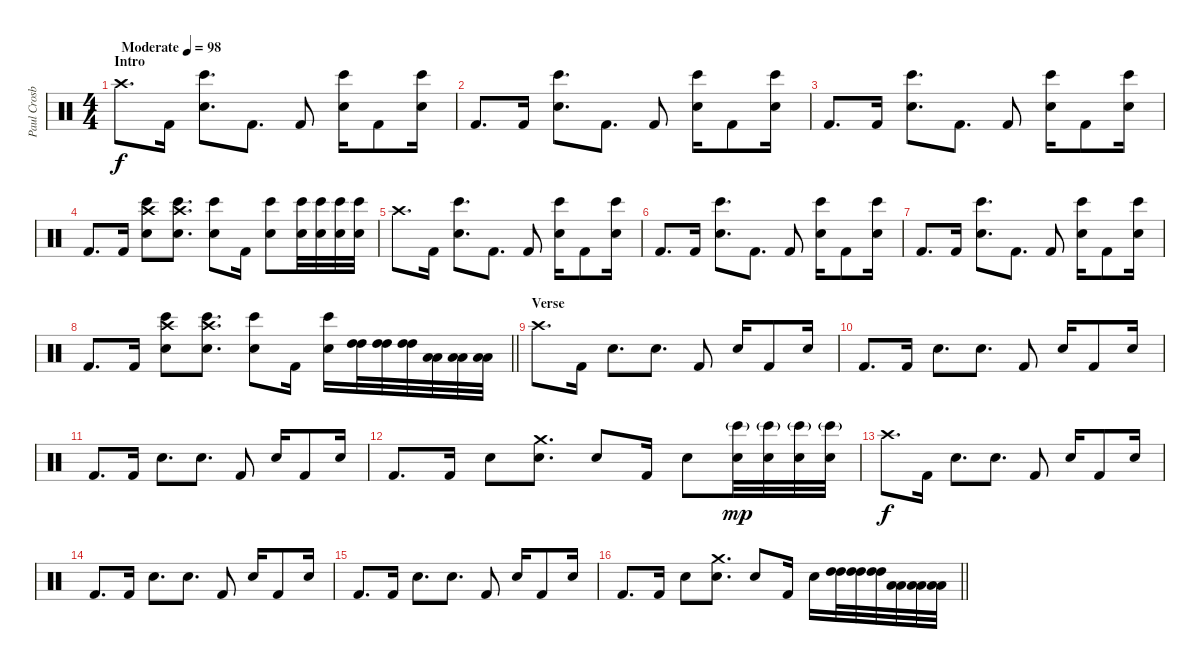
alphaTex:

\track ("Paul Crosby (Drums)" "Paul Crosb") {instrument percussion}
\staff {score}
\articulation defaults
\ts (4 4)
\section ("" "Intro")
\tempo (98 "Moderate")
\clef neutral
\ks c "Crash high (hit)".8{d dy f} "Kick (hit) 2".16
("Electric Snare (hit)" "Bongo High (hit)").8{d} "Kick (hit) 2".8{d} "Kick (hit) 2".8 ("Electric Snare (hit)" "Bongo High (hit)").16 "Kick (hit) 2".8 ("Electric Snare (hit)" "Bongo High (hit)").16 |
"Kick (hit) 2".8{d} "Kick (hit) 2".16 ("Electric Snare (hit)" "Bongo High (hit)").8{d} "Kick (hit) 2".8{d} "Kick (hit) 2".8 ("Electric Snare (hit)" "Bongo High (hit)").16 "Kick (hit) 2".8 ("Electric Snare (hit)" "Bongo High (hit)").16 |
"Kick (hit) 2".8{d} "Kick (hit) 2".16 ("Electric Snare (hit)" "Bongo High (hit)").8{d} "Kick (hit) 2".8{d} "Kick (hit) 2".8 ("Electric Snare (hit)" "Bongo High (hit)").16 "Kick (hit) 2".8 ("Electric Snare (hit)" "Bongo High (hit)").16 |
"Kick (hit) 2".8{d} "Kick (hit) 2".16 ("Crash high (hit)" "Electric Snare (hit)" "Bongo High (hit)").8 ("Crash high (hit)" "Electric Snare (hit)" "Bongo High (hit)").8{d} ("Electric Snare (hit)" "Bongo High (hit)").8 "Kick (hit) 2".16 ("Electric Snare (hit)" "Bongo High (hit)").8 ("Electric Snare (hit)" "Bongo High (hit)").32 ("Electric Snare (hit)" "Bongo High (hit)").32 ("Electric Snare (hit)" "Bongo High (hit)").32 ("Electric Snare (hit)" "Bongo High (hit)").32 |
"Crash high (hit)".8{d} "Kick (hit) 2".16 ("Electric Snare (hit)" "Bongo High (hit)").8{d} "Kick (hit) 2".8{d} "Kick (hit) 2".8 ("Electric Snare (hit)" "Bongo High (hit)").16 "Kick (hit) 2".8 ("Electric Snare (hit)" "Bongo High (hit)").16 |
"Kick (hit) 2".8{d} "Kick (hit) 2".16 ("Electric Snare (hit)" "Bongo High (hit)").8{d} "Kick (hit) 2".8{d} "Kick (hit) 2".8 ("Electric Snare (hit)" "Bongo High (hit)").16 "Kick (hit) 2".8 ("Electric Snare (hit)" "Bongo High (hit)").16 |
"Kick (hit) 2".8{d} "Kick (hit) 2".16 ("Electric Snare (hit)" "Bongo High (hit)").8{d} "Kick (hit) 2".8{d} "Kick (hit) 2".8 ("Electric Snare (hit)" "Bongo High (hit)").16 "Kick (hit) 2".8 ("Electric Snare (hit)" "Bongo High (hit)").16 |
\barLineRight lightlight "Kick (hit) 2".8{d} "Kick (hit) 2".16
("Crash high (hit)" "Electric Snare (hit)" "Bongo High (hit)").8 ("Crash high (hit)" "Electric Snare (hit)" "Bongo High (hit)").8{d} ("Electric Snare (hit)" "Bongo High (hit)").8 "Kick (hit) 2".16 ("Electric Snare (hit)" "Bongo High (hit)").16 ("High Tom (hit)" "High Tom (hit)").32 ("High Tom (hit)" "High Tom (hit)").32 ("High Tom (hit)" "High Tom (hit)").32 ("Low Tom (hit)" "Low Tom (hit)").32 ("Low Tom (hit)" "Low Tom (hit)").32 ("Low Tom (hit)" "Low Tom (hit)").32 |
\section ("" "Verse")
"Crash high (hit)".8{d} "Kick (hit) 2".16 "Electric Snare (hit)".8{d} "Electric Snare (hit)".8{d} "Kick (hit) 2".8 "Electric Snare (hit)".16 "Kick (hit) 2".8 "Electric Snare (hit)".16 |
"Kick (hit) 2".8{d} "Kick (hit) 2".16 "Electric Snare (hit)".8{d} "Electric Snare (hit)".8{d} "Kick (hit) 2".8 "Electric Snare (hit)".16 "Kick (hit) 2".8 "Electric Snare (hit)".16 |
"Kick (hit) 2".8{d} "Kick (hit) 2".16 "Electric Snare (hit)".8{d} "Electric Snare (hit)".8{d} "Kick (hit) 2".8 "Electric Snare (hit)".16 "Kick (hit) 2".8 "Electric Snare (hit)".16 |
"Kick (hit) 2".8{d} "Kick (hit) 2".16 "Electric Snare (hit)".8 ("Electric Snare (hit)" "Crash medium (hit)").8{d} "Electric Snare (hit)".8 "Kick (hit) 2".16 "Electric Snare (hit)".8 ("Electric Snare (hit)" "Bongo High (hit)"{g}).32{dy mp} ("Electric Snare (hit)" "Bongo High (hit)"{g}).32 ("Electric Snare (hit)" "Bongo High (hit)"{g}).32 ("Electric Snare (hit)" "Bongo High (hit)"{g}).32 |
"Crash high (hit)".8{d dy f} "Kick (hit) 2".16 "Electric Snare (hit)".8{d} "Electric Snare (hit)".8{d} "Kick (hit) 2".8 "Electric Snare (hit)".16 "Kick (hit) 2".8 "Electric Snare (hit)".16 |
"Kick (hit) 2".8{d} "Kick (hit) 2".16 "Electric Snare (hit)".8{d} "Electric Snare (hit)".8{d} "Kick (hit) 2".8 "Electric Snare (hit)".16 "Kick (hit) 2".8 "Electric Snare (hit)".16 |
"Kick (hit) 2".8{d} "Kick (hit) 2".16 "Electric Snare (hit)".8{d} "Electric Snare (hit)".8{d} "Kick (hit) 2".8 "Electric Snare (hit)".16 "Kick (hit) 2".8 "Electric Snare (hit)".16 |
\barLineRight lightlight "Kick (hit) 2".8{d} "Kick (hit) 2".16 "Electric Snare (hit)".8
("Electric Snare (hit)" "Crash medium (hit)").8{d} "Electric Snare (hit)".8 "Kick (hit) 2".16 "Electric Snare (hit)".16 ("High Tom (hit)" "High Tom (hit)").32 ("High Tom (hit)" "High Tom (hit)").32 ("High Tom (hit)" "High Tom (hit)").32 ("Low Tom (hit)" "Low Tom (hit)").32 ("Low Tom (hit)" "Low Tom (hit)").32 ("Low Tom (hit)" "Low Tom (hit)").32
